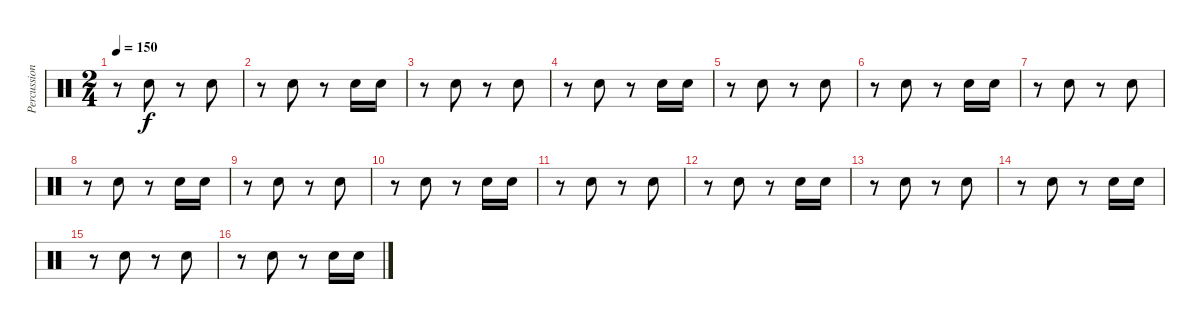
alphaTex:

\track ("Percussions" "Percussion") {instrument percussion}
\staff {score}
\articulation defaults
\ts (2 4)
\tempo 150
\clef neutral
\ks c
r.8{dy f} "Electric Snare (hit)".8 r.8 "Electric Snare (hit)".8 |
r.8 "Electric Snare (hit)".8 r.8 "Electric Snare (hit)".16 "Electric Snare (hit)".16 |
r.8 "Electric Snare (hit)".8 r.8 "Electric Snare (hit)".8 |
r.8 "Electric Snare (hit)".8 r.8 "Electric Snare (hit)".16 "Electric Snare (hit)".16 |
r.8 "Electric Snare (hit)".8 r.8 "Electric Snare (hit)".8 |
r.8 "Electric Snare (hit)".8 r.8 "Electric Snare (hit)".16 "Electric Snare (hit)".16 |
r.8 "Electric Snare (hit)".8 r.8 "Electric Snare (hit)".8 |
r.8 "Electric Snare (hit)".8 r.8 "Electric Snare (hit)".16 "Electric Snare (hit)".16 |
r.8 "Electric Snare (hit)".8 r.8 "Electric Snare (hit)".8 |
r.8 "Electric Snare (hit)".8 r.8 "Electric Snare (hit)".16 "Electric Snare (hit)".16 |
r.8 "Electric Snare (hit)".8 r.8 "Electric Snare (hit)".8 |
r.8 "Electric Snare (hit)".8 r.8 "Electric Snare (hit)".16 "Electric Snare (hit)".16 |
r.8 "Electric Snare (hit)".8 r.8 "Electric Snare (hit)".8 |
r.8 "Electric Snare (hit)".8 r.8 "Electric Snare (hit)".16 "Electric Snare (hit)".16 |
r.8 "Electric Snare (hit)".8 r.8 "Electric Snare (hit)".8 |
r.8 "Electric Snare (hit)".8 r.8 "Electric Snare (hit)".16 "Electric Snare (hit)".16
